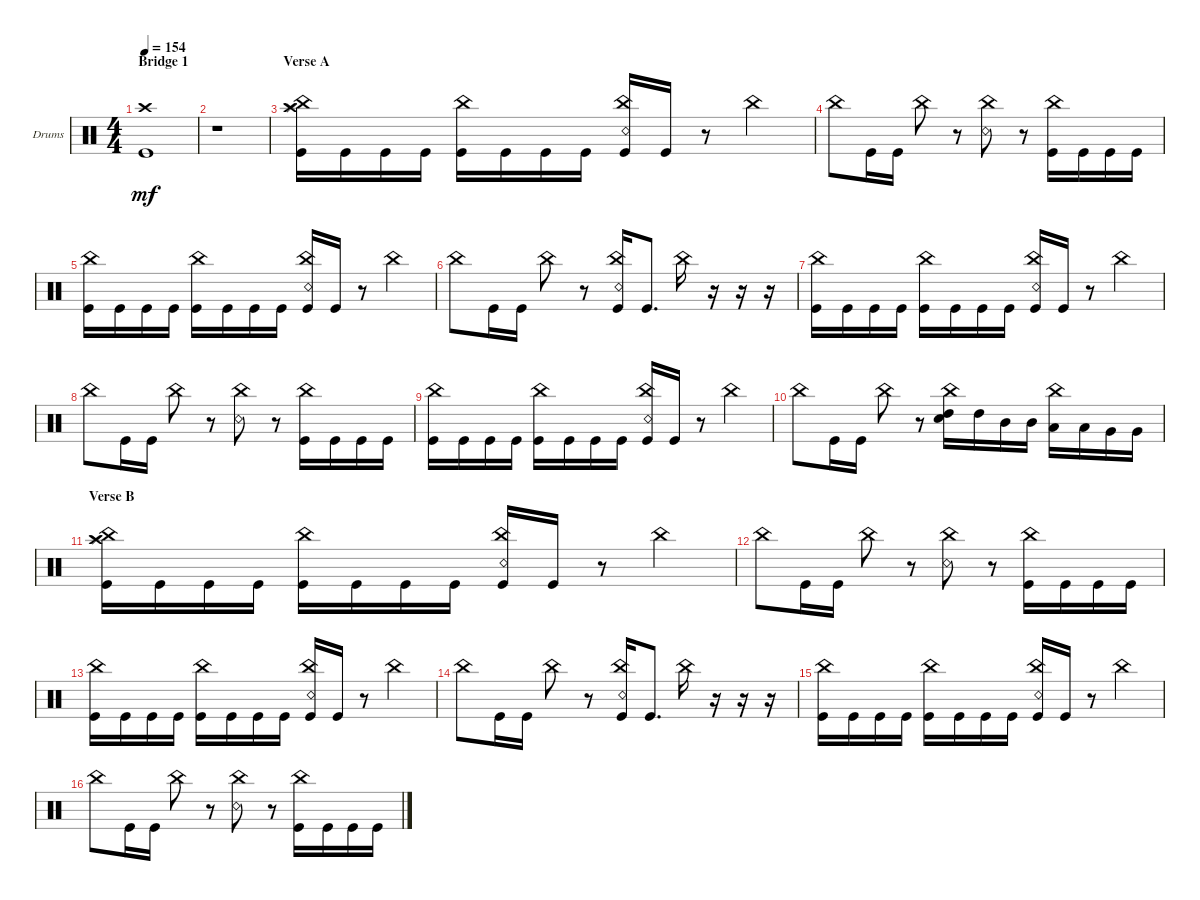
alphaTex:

\defaultSystemsLayout 4
\bracketExtendMode groupsimilarinstruments
\firstSystemTrackNameOrientation horizontal
\otherSystemsTrackNameOrientation horizontal
\track ("Drums" "Drums") {instrument percussion}
\staff {score}
\articulation defaults
\ts (4 4)
\section ("" "Bridge 1")
\tempo 154
\clef neutral
\ks c
("Kick (hit)" "Crash high (hit)").1{dy mf} |
r.1 |
\section ("" "Verse A")
("Kick (hit)" "Splash (hit)" "China (hit)" "Crash high (hit)").16 "Kick (hit)".16 "Kick (hit)".16 "Kick (hit)".16 ("Kick (hit)" "China (hit)").16 "Kick (hit)".16 "Kick (hit)".16 "Kick (hit)".16 ("Kick (hit)" "Snare (rim shot)" "China (hit)").16 "Kick (hit)".16 r.8 "China (hit)".4 |
"China (hit)".8 "Kick (hit)".16 "Kick (hit)".16 "China (hit)".8 r.8 ("Snare (rim shot)" "China (hit)").8 r.8 ("Kick (hit)" "China (hit)").16 "Kick (hit)".16 "Kick (hit)".16 "Kick (hit)".16 |
("Kick (hit)" "China (hit)").16 "Kick (hit)".16 "Kick (hit)".16 "Kick (hit)".16 ("Kick (hit)" "China (hit)").16 "Kick (hit)".16 "Kick (hit)".16 "Kick (hit)".16 ("Kick (hit)" "Snare (rim shot)" "China (hit)").16 "Kick (hit)".16 r.8 "China (hit)".4 |
"China (hit)".8 "Kick (hit)".16 "Kick (hit)".16 "China (hit)".8 r.8 ("Snare (rim shot)" "China (hit)" "Kick (hit)").16 "Kick (hit)".8{d} "China (hit)".16 r.16 r.16 r.16 |
("Kick (hit)" "China (hit)").16 "Kick (hit)".16 "Kick (hit)".16 "Kick (hit)".16 ("Kick (hit)" "China (hit)").16 "Kick (hit)".16 "Kick (hit)".16 "Kick (hit)".16 ("Kick (hit)" "Snare (rim shot)" "China (hit)").16 "Kick (hit)".16 r.8 "China (hit)".4 |
"China (hit)".8 "Kick (hit)".16 "Kick (hit)".16 "China (hit)".8 r.8 ("Snare (rim shot)" "China (hit)").8 r.8 ("Kick (hit)" "China (hit)").16 "Kick (hit)".16 "Kick (hit)".16 "Kick (hit)".16 |
("Kick (hit)" "China (hit)").16 "Kick (hit)".16 "Kick (hit)".16 "Kick (hit)".16 ("Kick (hit)" "China (hit)").16 "Kick (hit)".16 "Kick (hit)".16 "Kick (hit)".16 ("Kick (hit)" "Snare (rim shot)" "China (hit)").16 "Kick (hit)".16 r.8 "China (hit)".4 |
"China (hit)".8 "Kick (hit)".16 "Kick (hit)".16 "China (hit)".8 r.8 ("High Tom (hit)" "Snare (hit) 2" "China (hit)").16 "High Tom (hit)".16 "Mid Tom (hit)".16 "Mid Tom (hit)".16 ("Low Tom (hit)" "China (hit)").16 "Low Tom (hit)".16 "Very Low Tom (hit)".16 "Very Low Tom (hit)".16 |
\section ("" "Verse B")
("Kick (hit)" "Splash (hit)" "China (hit)" "Crash high (hit)").16 "Kick (hit)".16 "Kick (hit)".16 "Kick (hit)".16 ("Kick (hit)" "China (hit)").16 "Kick (hit)".16 "Kick (hit)".16 "Kick (hit)".16 ("Kick (hit)" "Snare (rim shot)" "China (hit)").16 "Kick (hit)".16 r.8 "China (hit)".4 |
"China (hit)".8 "Kick (hit)".16 "Kick (hit)".16 "China (hit)".8 r.8 ("Snare (rim shot)" "China (hit)").8 r.8 ("Kick (hit)" "China (hit)").16 "Kick (hit)".16 "Kick (hit)".16 "Kick (hit)".16 |
("Kick (hit)" "China (hit)").16 "Kick (hit)".16 "Kick (hit)".16 "Kick (hit)".16 ("Kick (hit)" "China (hit)").16 "Kick (hit)".16 "Kick (hit)".16 "Kick (hit)".16 ("Kick (hit)" "Snare (rim shot)" "China (hit)").16 "Kick (hit)".16 r.8 "China (hit)".4 |
"China (hit)".8 "Kick (hit)".16 "Kick (hit)".16 "China (hit)".8 r.8 ("Snare (rim shot)" "China (hit)" "Kick (hit)").16 "Kick (hit)".8{d} "China (hit)".16 r.16 r.16 r.16 |
("Kick (hit)" "China (hit)").16 "Kick (hit)".16 "Kick (hit)".16 "Kick (hit)".16 ("Kick (hit)" "China (hit)").16 "Kick (hit)".16 "Kick (hit)".16 "Kick (hit)".16 ("Kick (hit)" "Snare (rim shot)" "China (hit)").16 "Kick (hit)".16 r.8 "China (hit)".4 |
"China (hit)".8 "Kick (hit)".16 "Kick (hit)".16 "China (hit)".8 r.8 ("Snare (rim shot)" "China (hit)").8 r.8 ("Kick (hit)" "China (hit)").16 "Kick (hit)".16 "Kick (hit)".16 "Kick (hit)".16
